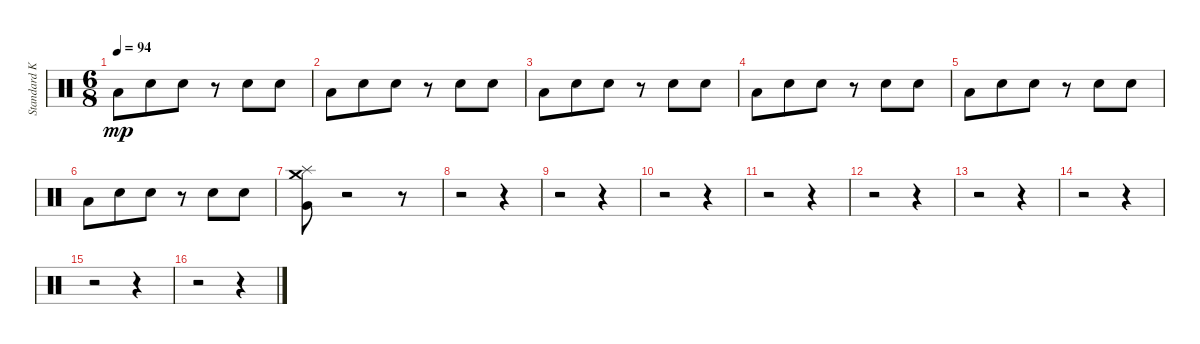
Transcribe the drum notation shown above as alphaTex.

\track ("Standard Kit" "Standard K") {instrument percussion}
\staff {score}
\articulation defaults
\ts (6 8)
\tempo 94
\clef neutral
\ks c "Low Floor Tom (hit)".8{dy mp} "Electric Snare (hit)".8 "Electric Snare (hit)".8
r.8 "Electric Snare (hit)".8 "Electric Snare (hit)".8 |
"Low Floor Tom (hit)".8 "Electric Snare (hit)".8 "Electric Snare (hit)".8 r.8 "Electric Snare (hit)".8 "Electric Snare (hit)".8 |
"Low Floor Tom (hit)".8 "Electric Snare (hit)".8 "Electric Snare (hit)".8 r.8 "Electric Snare (hit)".8 "Electric Snare (hit)".8 |
"Low Floor Tom (hit)".8 "Electric Snare (hit)".8 "Electric Snare (hit)".8 r.8 "Electric Snare (hit)".8 "Electric Snare (hit)".8 |
"Low Floor Tom (hit)".8 "Electric Snare (hit)".8 "Electric Snare (hit)".8 r.8 "Electric Snare (hit)".8 "Electric Snare (hit)".8 |
"Low Floor Tom (hit)".8 "Electric Snare (hit)".8 "Electric Snare (hit)".8 r.8 "Electric Snare (hit)".8 "Electric Snare (hit)".8 |
("Very Low Tom (hit)" "Splash (hit)" "Crash medium (hit)").8 r.2 r.8 |
r.2 r.4 |
r.2 r.4 |
r.2 r.4 |
r.2 r.4 |
r.2 r.4 |
r.2 r.4 |
r.2 r.4 |
r.2 r.4 |
r.2 r.4
